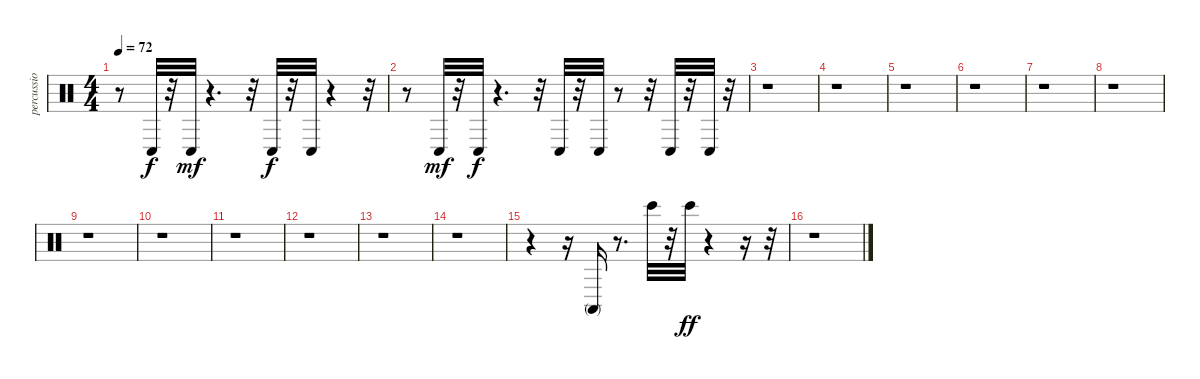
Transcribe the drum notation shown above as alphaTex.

\track ("percussio" "percussio") {instrument percussion}
\staff {score}
\articulation defaults
\ts (4 4)
\tempo 72
\clef neutral
\ks c
r.8{dy f} "Conga low (hit)".32 r.32 "Conga low (hit)".32{dy mf} r.4{d} r.32 "Conga low (hit)".32{dy f} r.32 "Conga low (hit)".32 r.4 r.32 |
r.8 "Conga low (hit)".32{dy mf} r.32 "Conga low (hit)".32{dy f} r.4{d} r.32 "Conga low (hit)".32 r.32 "Conga low (hit)".32 r.8 r.32 "Conga low (hit)".32 r.32 "Conga low (hit)".32 r.32 |
r.1 |
r.1 |
r.1 |
r.1 |
r.1 |
r.1 |
r.1 |
r.1 |
r.1 |
r.1 |
r.1 |
r.1 |
r.4 r.16 "Conga high (mute)".16 r.8{d} "Bongo High (hit)".32 r.32 "Bongo High (hit)".32{dy ff} r.4 r.16 r.32 |
r.1
